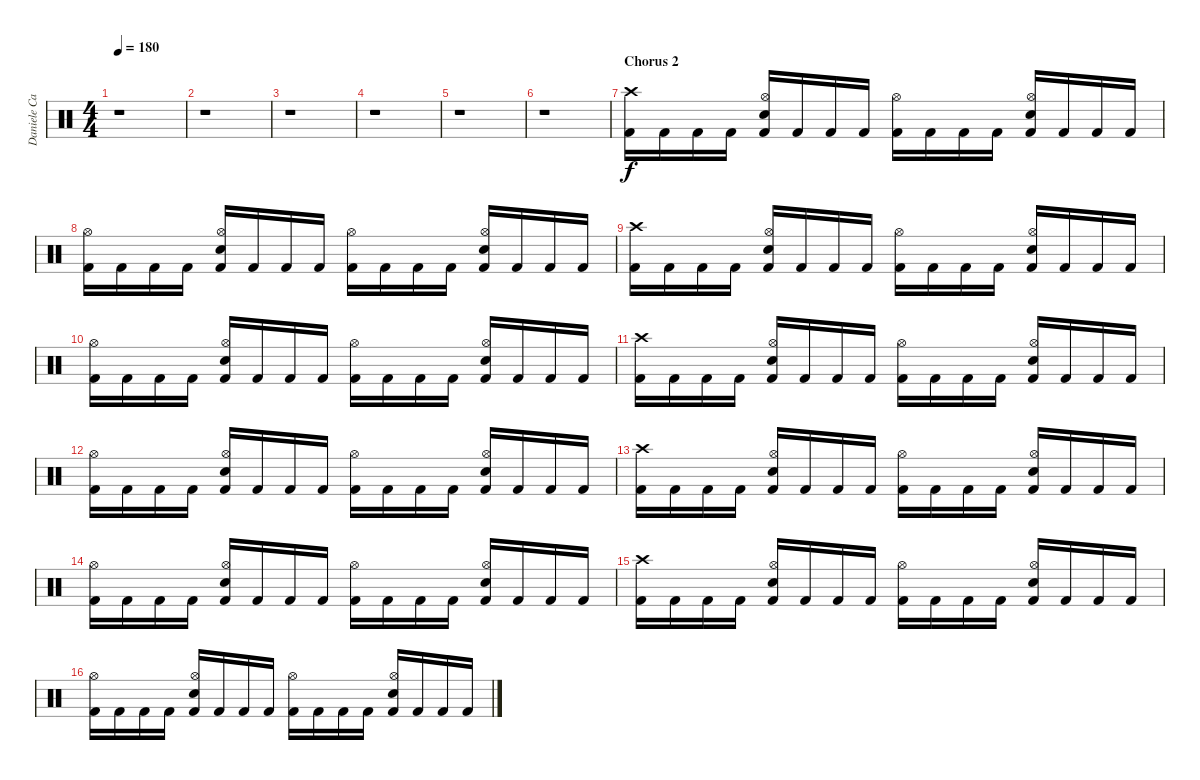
\track ("Daniele Carbonera " "Daniele Ca") {instrument percussion}
\staff {score}
\articulation defaults
\ts (4 4)
\tempo 180
\clef neutral
\ks c
r.1{dy f} |
r.1 |
r.1 |
r.1 |
r.1 |
r.1 |
\section ("" "Chorus 2")
("Crash high (hit)" "Kick (hit) 2").16 "Kick (hit) 2".16 "Kick (hit) 2".16 "Kick (hit) 2".16 ("Hi-Hat (open)" "Electric Snare (hit)" "Kick (hit) 2").16 "Kick (hit) 2".16 "Kick (hit) 2".16 "Kick (hit) 2".16 ("Hi-Hat (open)" "Kick (hit) 2").16 "Kick (hit) 2".16 "Kick (hit) 2".16 "Kick (hit) 2".16 ("Hi-Hat (open)" "Electric Snare (hit)" "Kick (hit) 2").16 "Kick (hit) 2".16 "Kick (hit) 2".16 "Kick (hit) 2".16 |
("Hi-Hat (open)" "Kick (hit) 2").16 "Kick (hit) 2".16 "Kick (hit) 2".16 "Kick (hit) 2".16 ("Hi-Hat (open)" "Electric Snare (hit)" "Kick (hit) 2").16 "Kick (hit) 2".16 "Kick (hit) 2".16 "Kick (hit) 2".16 ("Hi-Hat (open)" "Kick (hit) 2").16 "Kick (hit) 2".16 "Kick (hit) 2".16 "Kick (hit) 2".16 ("Hi-Hat (open)" "Electric Snare (hit)" "Kick (hit) 2").16 "Kick (hit) 2".16 "Kick (hit) 2".16 "Kick (hit) 2".16 |
("Crash high (hit)" "Kick (hit) 2").16 "Kick (hit) 2".16 "Kick (hit) 2".16 "Kick (hit) 2".16 ("Hi-Hat (open)" "Electric Snare (hit)" "Kick (hit) 2").16 "Kick (hit) 2".16 "Kick (hit) 2".16 "Kick (hit) 2".16 ("Hi-Hat (open)" "Kick (hit) 2").16 "Kick (hit) 2".16 "Kick (hit) 2".16 "Kick (hit) 2".16 ("Hi-Hat (open)" "Electric Snare (hit)" "Kick (hit) 2").16 "Kick (hit) 2".16 "Kick (hit) 2".16 "Kick (hit) 2".16 |
("Hi-Hat (open)" "Kick (hit) 2").16 "Kick (hit) 2".16 "Kick (hit) 2".16 "Kick (hit) 2".16 ("Hi-Hat (open)" "Electric Snare (hit)" "Kick (hit) 2").16 "Kick (hit) 2".16 "Kick (hit) 2".16 "Kick (hit) 2".16 ("Hi-Hat (open)" "Kick (hit) 2").16 "Kick (hit) 2".16 "Kick (hit) 2".16 "Kick (hit) 2".16 ("Hi-Hat (open)" "Electric Snare (hit)" "Kick (hit) 2").16 "Kick (hit) 2".16 "Kick (hit) 2".16 "Kick (hit) 2".16 |
("Crash high (hit)" "Kick (hit) 2").16 "Kick (hit) 2".16 "Kick (hit) 2".16 "Kick (hit) 2".16 ("Hi-Hat (open)" "Electric Snare (hit)" "Kick (hit) 2").16 "Kick (hit) 2".16 "Kick (hit) 2".16 "Kick (hit) 2".16 ("Hi-Hat (open)" "Kick (hit) 2").16 "Kick (hit) 2".16 "Kick (hit) 2".16 "Kick (hit) 2".16 ("Hi-Hat (open)" "Electric Snare (hit)" "Kick (hit) 2").16 "Kick (hit) 2".16 "Kick (hit) 2".16 "Kick (hit) 2".16 |
("Hi-Hat (open)" "Kick (hit) 2").16 "Kick (hit) 2".16 "Kick (hit) 2".16 "Kick (hit) 2".16 ("Hi-Hat (open)" "Electric Snare (hit)" "Kick (hit) 2").16 "Kick (hit) 2".16 "Kick (hit) 2".16 "Kick (hit) 2".16 ("Hi-Hat (open)" "Kick (hit) 2").16 "Kick (hit) 2".16 "Kick (hit) 2".16 "Kick (hit) 2".16 ("Hi-Hat (open)" "Electric Snare (hit)" "Kick (hit) 2").16 "Kick (hit) 2".16 "Kick (hit) 2".16 "Kick (hit) 2".16 |
("Crash high (hit)" "Kick (hit) 2").16 "Kick (hit) 2".16 "Kick (hit) 2".16 "Kick (hit) 2".16 ("Hi-Hat (open)" "Electric Snare (hit)" "Kick (hit) 2").16 "Kick (hit) 2".16 "Kick (hit) 2".16 "Kick (hit) 2".16 ("Hi-Hat (open)" "Kick (hit) 2").16 "Kick (hit) 2".16 "Kick (hit) 2".16 "Kick (hit) 2".16 ("Hi-Hat (open)" "Electric Snare (hit)" "Kick (hit) 2").16 "Kick (hit) 2".16 "Kick (hit) 2".16 "Kick (hit) 2".16 |
("Hi-Hat (open)" "Kick (hit) 2").16 "Kick (hit) 2".16 "Kick (hit) 2".16 "Kick (hit) 2".16 ("Hi-Hat (open)" "Electric Snare (hit)" "Kick (hit) 2").16 "Kick (hit) 2".16 "Kick (hit) 2".16 "Kick (hit) 2".16 ("Hi-Hat (open)" "Kick (hit) 2").16 "Kick (hit) 2".16 "Kick (hit) 2".16 "Kick (hit) 2".16 ("Hi-Hat (open)" "Electric Snare (hit)" "Kick (hit) 2").16 "Kick (hit) 2".16 "Kick (hit) 2".16 "Kick (hit) 2".16 |
("Crash high (hit)" "Kick (hit) 2").16 "Kick (hit) 2".16 "Kick (hit) 2".16 "Kick (hit) 2".16 ("Hi-Hat (open)" "Electric Snare (hit)" "Kick (hit) 2").16 "Kick (hit) 2".16 "Kick (hit) 2".16 "Kick (hit) 2".16 ("Hi-Hat (open)" "Kick (hit) 2").16 "Kick (hit) 2".16 "Kick (hit) 2".16 "Kick (hit) 2".16 ("Hi-Hat (open)" "Electric Snare (hit)" "Kick (hit) 2").16 "Kick (hit) 2".16 "Kick (hit) 2".16 "Kick (hit) 2".16 |
("Hi-Hat (open)" "Kick (hit) 2").16 "Kick (hit) 2".16 "Kick (hit) 2".16 "Kick (hit) 2".16 ("Hi-Hat (open)" "Electric Snare (hit)" "Kick (hit) 2").16 "Kick (hit) 2".16 "Kick (hit) 2".16 "Kick (hit) 2".16 ("Hi-Hat (open)" "Kick (hit) 2").16 "Kick (hit) 2".16 "Kick (hit) 2".16 "Kick (hit) 2".16 ("Hi-Hat (open)" "Electric Snare (hit)" "Kick (hit) 2").16 "Kick (hit) 2".16 "Kick (hit) 2".16 "Kick (hit) 2".16
